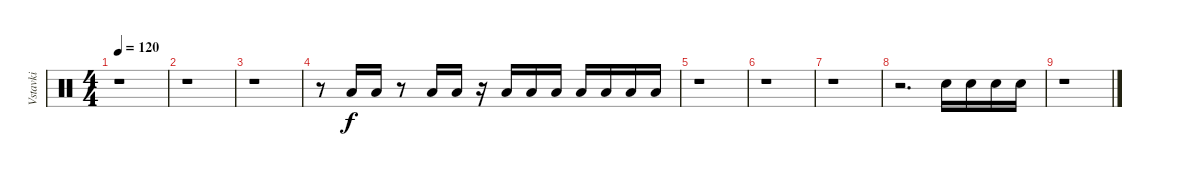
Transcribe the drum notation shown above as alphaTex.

\track ("Vstavki" "Vstavki") {instrument percussion}
\staff {score}
\articulation defaults
\ts (4 4)
\tempo 120
\clef neutral
\ks c
r.1{dy f} |
r.1 |
r.1 |
r.8 "Low Tom (hit)".16 "Low Tom (hit)".16 r.8 "Low Tom (hit)".16 "Low Tom (hit)".16 r.16 "Low Tom (hit)".16 "Low Tom (hit)".16 "Low Tom (hit)".16 "Low Tom (hit)".16 "Low Tom (hit)".16 "Low Tom (hit)".16 "Low Tom (hit)".16 |
r.1 |
r.1 |
r.1 |
r.2{d} "Snare (hit) 2".16 "Snare (hit) 2".16 "Snare (hit) 2".16 "Snare (hit) 2".16 |
r.1
